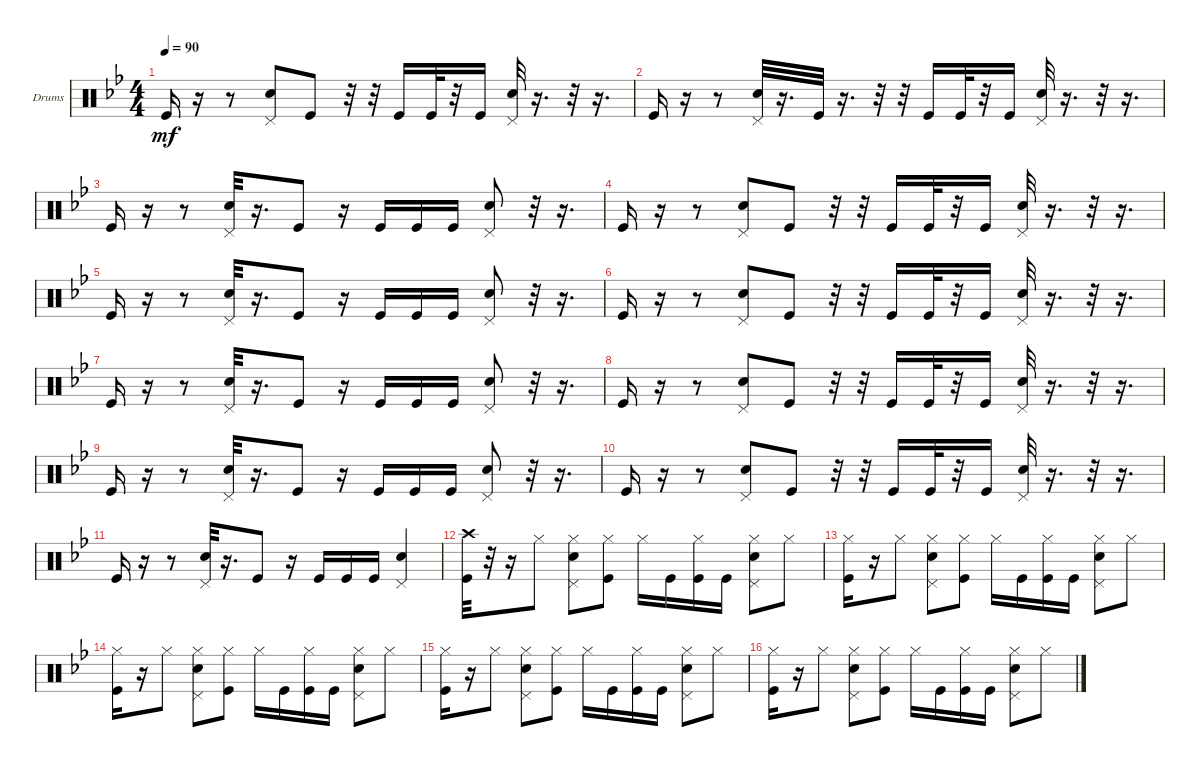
\bracketExtendMode groupsimilarinstruments
\firstSystemTrackNameOrientation horizontal
\otherSystemsTrackNameOrientation horizontal
\track ("Drumkit" "Drums") {instrument percussion}
\staff {score}
\articulation defaults
\ts (4 4)
\tempo 90
\clef neutral
\ks bb "Kick (hit)".16{dy mf}
r.16 r.8 ("Pedal Hi-Hat (hit)" "Snare (hit) 2").8 "Kick (hit)".8 r.32 r.32 "Kick (hit)".16 "Kick (hit)".32 r.32 "Kick (hit)".16 ("Pedal Hi-Hat (hit)" "Snare (hit) 2").32 r.16{d} r.32 r.16{d} |
"Kick (hit)".16 r.16 r.8 ("Pedal Hi-Hat (hit)" "Snare (hit) 2").32 r.16{d} "Kick (hit)".32 r.16{d} r.32 r.32 "Kick (hit)".16 "Kick (hit)".32 r.32 "Kick (hit)".16 ("Snare (hit) 2" "Pedal Hi-Hat (hit)").32 r.16{d} r.32 r.16{d} |
"Kick (hit)".16 r.16 r.8 ("Snare (hit) 2" "Pedal Hi-Hat (hit)").32 r.16{d} "Kick (hit)".8 r.16 "Kick (hit)".16 "Kick (hit)".16 "Kick (hit)".16 ("Snare (hit) 2" "Pedal Hi-Hat (hit)").8 r.32 r.16{d} |
"Kick (hit)".16 r.16 r.8 ("Snare (hit) 2" "Pedal Hi-Hat (hit)").8 "Kick (hit)".8 r.32 r.32 "Kick (hit)".16 "Kick (hit)".32 r.32 "Kick (hit)".16 ("Pedal Hi-Hat (hit)" "Snare (hit) 2").32 r.16{d} r.32 r.16{d} |
"Kick (hit)".16 r.16 r.8 ("Snare (hit) 2" "Pedal Hi-Hat (hit)").32 r.16{d} "Kick (hit)".8 r.16 "Kick (hit)".16 "Kick (hit)".16 "Kick (hit)".16 ("Pedal Hi-Hat (hit)" "Snare (hit) 2").8 r.32 r.16{d} |
"Kick (hit)".16 r.16 r.8 ("Pedal Hi-Hat (hit)" "Snare (hit) 2").8 "Kick (hit)".8 r.32 r.32 "Kick (hit)".16 "Kick (hit)".32 r.32 "Kick (hit)".16 ("Pedal Hi-Hat (hit)" "Snare (hit) 2").32 r.16{d} r.32 r.16{d} |
"Kick (hit)".16 r.16 r.8 ("Pedal Hi-Hat (hit)" "Snare (hit) 2").32 r.16{d} "Kick (hit)".8 r.16 "Kick (hit)".16 "Kick (hit)".16 "Kick (hit)".16 ("Pedal Hi-Hat (hit)" "Snare (hit) 2").8 r.32 r.16{d} |
"Kick (hit)".16 r.16 r.8 ("Pedal Hi-Hat (hit)" "Snare (hit) 2").8 "Kick (hit)".8 r.32 r.32 "Kick (hit)".16 "Kick (hit)".32 r.32 "Kick (hit)".16 ("Pedal Hi-Hat (hit)" "Snare (hit) 2").32 r.16{d} r.32 r.16{d} |
"Kick (hit)".16 r.16 r.8 ("Pedal Hi-Hat (hit)" "Snare (hit) 2").32 r.16{d} "Kick (hit)".8 r.16 "Kick (hit)".16 "Kick (hit)".16 "Kick (hit)".16 ("Pedal Hi-Hat (hit)" "Snare (hit) 2").8 r.32 r.16{d} |
"Kick (hit)".16 r.16 r.8 ("Pedal Hi-Hat (hit)" "Snare (hit) 2").8 "Kick (hit)".8 r.32 r.32 "Kick (hit)".16 "Kick (hit)".32 r.32 "Kick (hit)".16 ("Pedal Hi-Hat (hit)" "Snare (hit) 2").32 r.16{d} r.32 r.16{d} |
"Kick (hit)".16 r.16 r.8 ("Pedal Hi-Hat (hit)" "Snare (hit) 2").32 r.16{d} "Kick (hit)".8 r.16 "Kick (hit)".16 "Kick (hit)".16 "Kick (hit)".16 ("Pedal Hi-Hat (hit)" "Snare (hit) 2").4 |
("Crash high (hit)" "Kick (hit)").32 r.32 r.16 "Hi-Hat (closed)".8 ("Hi-Hat (closed)" "Snare (hit) 2" "Pedal Hi-Hat (hit)").8 ("Hi-Hat (closed)" "Kick (hit)").8 "Hi-Hat (closed)".16 "Kick (hit)".16 ("Kick (hit)" "Hi-Hat (closed)").16 "Kick (hit)".16 ("Hi-Hat (closed)" "Pedal Hi-Hat (hit)" "Snare (hit) 2").8 "Hi-Hat (closed)".8 |
("Hi-Hat (closed)" "Kick (hit)").16 r.16 "Hi-Hat (closed)".8 ("Pedal Hi-Hat (hit)" "Hi-Hat (closed)" "Snare (hit) 2").8 ("Kick (hit)" "Hi-Hat (closed)").8 "Hi-Hat (closed)".16 "Kick (hit)".16 ("Hi-Hat (closed)" "Kick (hit)").16 "Kick (hit)".16 ("Hi-Hat (closed)" "Snare (hit) 2" "Pedal Hi-Hat (hit)").8 "Hi-Hat (closed)".8 |
("Kick (hit)" "Hi-Hat (closed)").16 r.16 "Hi-Hat (closed)".8 ("Hi-Hat (closed)" "Pedal Hi-Hat (hit)" "Snare (hit) 2").8 ("Hi-Hat (closed)" "Kick (hit)").8 "Hi-Hat (closed)".16 "Kick (hit)".16 ("Kick (hit)" "Hi-Hat (closed)").16 "Kick (hit)".16 ("Snare (hit) 2" "Pedal Hi-Hat (hit)" "Hi-Hat (closed)").8 "Hi-Hat (closed)".8 |
("Kick (hit)" "Hi-Hat (closed)").16 r.16 "Hi-Hat (closed)".8 ("Pedal Hi-Hat (hit)" "Snare (hit) 2" "Hi-Hat (closed)").8 ("Hi-Hat (closed)" "Kick (hit)").8 "Hi-Hat (closed)".16 "Kick (hit)".16 ("Kick (hit)" "Hi-Hat (closed)").16 "Kick (hit)".16 ("Hi-Hat (closed)" "Pedal Hi-Hat (hit)" "Snare (hit) 2").8 "Hi-Hat (closed)".8 |
("Hi-Hat (closed)" "Kick (hit)").16 r.16 "Hi-Hat (closed)".8 ("Hi-Hat (closed)" "Pedal Hi-Hat (hit)" "Snare (hit) 2").8 ("Hi-Hat (closed)" "Kick (hit)").8 "Hi-Hat (closed)".16 "Kick (hit)".16 ("Kick (hit)" "Hi-Hat (closed)").16 "Kick (hit)".16 ("Snare (hit) 2" "Hi-Hat (closed)" "Pedal Hi-Hat (hit)").8 "Hi-Hat (closed)".8
